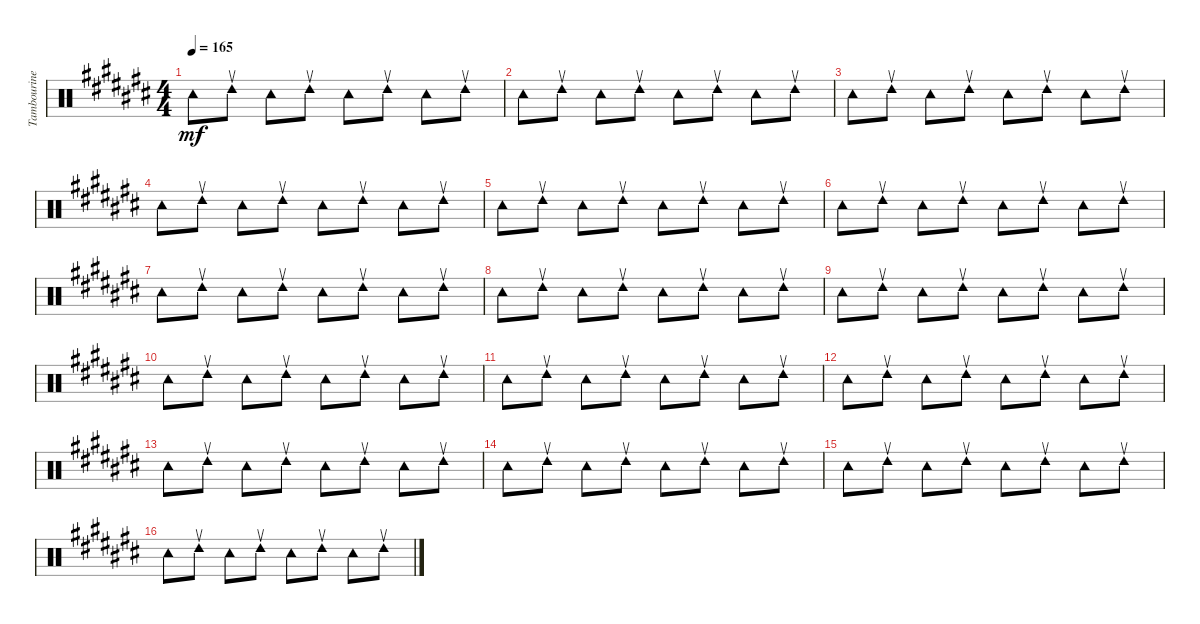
\track ("Tambourine" "Tambourine") {instrument percussion}
\staff {score}
\articulation defaults
\ts (4 4)
\tempo 165
\clef neutral
\ks c# "Tambourine (hit)".8{dy mf} "Tambourine (return)".8 "Tambourine (hit)".8 "Tambourine (return)".8 "Tambourine (hit)".8 "Tambourine (return)".8 "Tambourine (hit)".8 "Tambourine (return)".8
|
"Tambourine (hit)".8 "Tambourine (return)".8 "Tambourine (hit)".8 "Tambourine (return)".8 "Tambourine (hit)".8 "Tambourine (return)".8 "Tambourine (hit)".8 "Tambourine (return)".8 |
"Tambourine (hit)".8 "Tambourine (return)".8 "Tambourine (hit)".8 "Tambourine (return)".8 "Tambourine (hit)".8 "Tambourine (return)".8 "Tambourine (hit)".8 "Tambourine (return)".8 |
"Tambourine (hit)".8 "Tambourine (return)".8 "Tambourine (hit)".8 "Tambourine (return)".8 "Tambourine (hit)".8 "Tambourine (return)".8 "Tambourine (hit)".8 "Tambourine (return)".8 |
"Tambourine (hit)".8 "Tambourine (return)".8 "Tambourine (hit)".8 "Tambourine (return)".8 "Tambourine (hit)".8 "Tambourine (return)".8 "Tambourine (hit)".8 "Tambourine (return)".8 |
"Tambourine (hit)".8 "Tambourine (return)".8 "Tambourine (hit)".8 "Tambourine (return)".8 "Tambourine (hit)".8 "Tambourine (return)".8 "Tambourine (hit)".8 "Tambourine (return)".8 |
"Tambourine (hit)".8 "Tambourine (return)".8 "Tambourine (hit)".8 "Tambourine (return)".8 "Tambourine (hit)".8 "Tambourine (return)".8 "Tambourine (hit)".8 "Tambourine (return)".8 |
"Tambourine (hit)".8 "Tambourine (return)".8 "Tambourine (hit)".8 "Tambourine (return)".8 "Tambourine (hit)".8 "Tambourine (return)".8 "Tambourine (hit)".8 "Tambourine (return)".8 |
"Tambourine (hit)".8 "Tambourine (return)".8 "Tambourine (hit)".8 "Tambourine (return)".8 "Tambourine (hit)".8 "Tambourine (return)".8 "Tambourine (hit)".8 "Tambourine (return)".8 |
"Tambourine (hit)".8 "Tambourine (return)".8 "Tambourine (hit)".8 "Tambourine (return)".8 "Tambourine (hit)".8 "Tambourine (return)".8 "Tambourine (hit)".8 "Tambourine (return)".8 |
"Tambourine (hit)".8 "Tambourine (return)".8 "Tambourine (hit)".8 "Tambourine (return)".8 "Tambourine (hit)".8 "Tambourine (return)".8 "Tambourine (hit)".8 "Tambourine (return)".8 |
"Tambourine (hit)".8 "Tambourine (return)".8 "Tambourine (hit)".8 "Tambourine (return)".8 "Tambourine (hit)".8 "Tambourine (return)".8 "Tambourine (hit)".8 "Tambourine (return)".8 |
"Tambourine (hit)".8 "Tambourine (return)".8 "Tambourine (hit)".8 "Tambourine (return)".8 "Tambourine (hit)".8 "Tambourine (return)".8 "Tambourine (hit)".8 "Tambourine (return)".8 |
"Tambourine (hit)".8 "Tambourine (return)".8 "Tambourine (hit)".8 "Tambourine (return)".8 "Tambourine (hit)".8 "Tambourine (return)".8 "Tambourine (hit)".8 "Tambourine (return)".8 |
"Tambourine (hit)".8 "Tambourine (return)".8 "Tambourine (hit)".8 "Tambourine (return)".8 "Tambourine (hit)".8 "Tambourine (return)".8 "Tambourine (hit)".8 "Tambourine (return)".8 |
"Tambourine (hit)".8 "Tambourine (return)".8 "Tambourine (hit)".8 "Tambourine (return)".8 "Tambourine (hit)".8 "Tambourine (return)".8 "Tambourine (hit)".8 "Tambourine (return)".8
